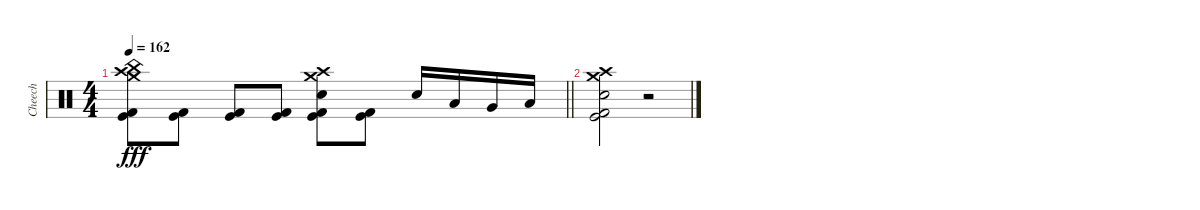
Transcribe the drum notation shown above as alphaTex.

\track ("Cheech" "Cheech") {instrument percussion}
\staff {score}
\articulation defaults
\ts (4 4)
\tempo 162
\clef neutral
\barLineRight lightlight
\ks c
("China (hit)" "Crash high (hit)" "Crash medium (hit)" "Kick (hit) 2" "Kick (hit)").8{dy fff} ("Kick (hit) 2" "Kick (hit)").8 ("Kick (hit) 2" "Kick (hit)").8 ("Kick (hit) 2" "Kick (hit)").8 ("Crash medium (hit)" "Crash high (hit)" "Electric Snare (hit)" "Kick (hit) 2" "Kick (hit)").8 ("Kick (hit) 2" "Kick (hit)").8 "Electric Snare (hit)".16 "Low Tom (hit)".16 "Very Low Tom (hit)".16 "Low Floor Tom (hit)".16 |
("Crash medium (hit)" "Crash high (hit)" "Electric Snare (hit)" "Kick (hit) 2" "Kick (hit)").2 r.2
